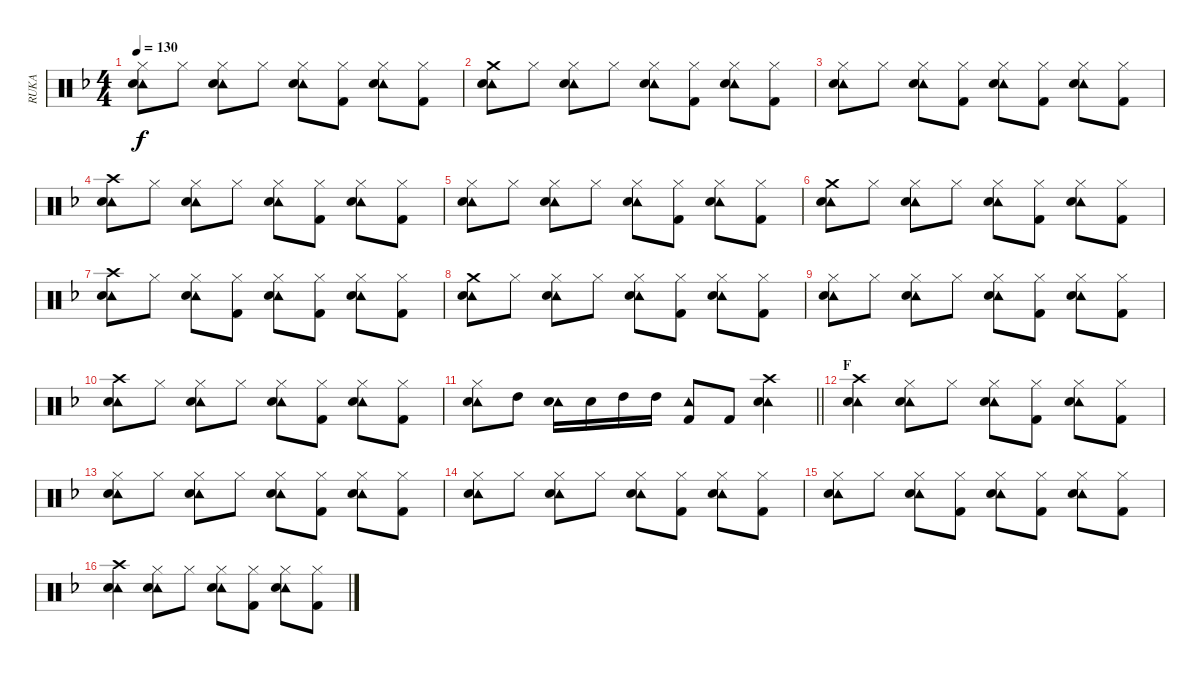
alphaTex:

\track ("RUKA" "RUKA") {instrument percussion}
\staff {score}
\articulation defaults
\ts (4 4)
\tempo 130
\clef neutral
\ks f
("Hi-Hat (closed)" "Tambourine (hit)" "Snare (hit) 2").8{dy f} "Hi-Hat (closed)".8 ("Hi-Hat (closed)" "Tambourine (hit)" "Snare (hit) 2").8 "Hi-Hat (closed)".8 ("Hi-Hat (closed)" "Tambourine (hit)" "Snare (hit) 2").8 ("Hi-Hat (closed)" "Kick (hit) 2").8 ("Hi-Hat (closed)" "Tambourine (hit)" "Snare (hit) 2").8 ("Hi-Hat (closed)" "Kick (hit) 2").8 |
("Crash medium (hit)" "Tambourine (hit)" "Snare (hit) 2").8 "Hi-Hat (closed)".8 ("Hi-Hat (closed)" "Tambourine (hit)" "Snare (hit) 2").8 "Hi-Hat (closed)".8 ("Hi-Hat (closed)" "Tambourine (hit)" "Snare (hit) 2").8 ("Hi-Hat (closed)" "Kick (hit) 2").8 ("Hi-Hat (closed)" "Tambourine (hit)" "Snare (hit) 2").8 ("Hi-Hat (closed)" "Kick (hit) 2").8 |
("Hi-Hat (closed)" "Tambourine (hit)" "Snare (hit) 2").8 "Hi-Hat (closed)".8 ("Hi-Hat (closed)" "Tambourine (hit)" "Snare (hit) 2").8 ("Hi-Hat (closed)" "Kick (hit) 2").8 ("Hi-Hat (closed)" "Tambourine (hit)" "Snare (hit) 2").8 ("Hi-Hat (closed)" "Kick (hit) 2").8 ("Hi-Hat (closed)" "Tambourine (hit)" "Snare (hit) 2").8 ("Hi-Hat (closed)" "Kick (hit) 2").8 |
("Crash high (hit)" "Tambourine (hit)" "Snare (hit) 2").8 "Hi-Hat (closed)".8 ("Hi-Hat (closed)" "Tambourine (hit)" "Snare (hit) 2").8 "Hi-Hat (closed)".8 ("Hi-Hat (closed)" "Tambourine (hit)" "Snare (hit) 2").8 ("Hi-Hat (closed)" "Kick (hit) 2").8 ("Hi-Hat (closed)" "Tambourine (hit)" "Snare (hit) 2").8 ("Hi-Hat (closed)" "Kick (hit) 2").8 |
("Hi-Hat (closed)" "Tambourine (hit)" "Snare (hit) 2").8 "Hi-Hat (closed)".8 ("Hi-Hat (closed)" "Tambourine (hit)" "Snare (hit) 2").8 "Hi-Hat (closed)".8 ("Hi-Hat (closed)" "Tambourine (hit)" "Snare (hit) 2").8 ("Hi-Hat (closed)" "Kick (hit) 2").8 ("Hi-Hat (closed)" "Tambourine (hit)" "Snare (hit) 2").8 ("Hi-Hat (closed)" "Kick (hit) 2").8 |
("Crash medium (hit)" "Tambourine (hit)" "Snare (hit) 2").8 "Hi-Hat (closed)".8 ("Hi-Hat (closed)" "Tambourine (hit)" "Snare (hit) 2").8 "Hi-Hat (closed)".8 ("Hi-Hat (closed)" "Tambourine (hit)" "Snare (hit) 2").8 ("Hi-Hat (closed)" "Kick (hit) 2").8 ("Hi-Hat (closed)" "Tambourine (hit)" "Snare (hit) 2").8 ("Hi-Hat (closed)" "Kick (hit) 2").8 |
("Crash high (hit)" "Tambourine (hit)" "Snare (hit) 2").8 "Hi-Hat (closed)".8 ("Hi-Hat (closed)" "Tambourine (hit)" "Snare (hit) 2").8 ("Hi-Hat (closed)" "Kick (hit) 2").8 ("Hi-Hat (closed)" "Tambourine (hit)" "Snare (hit) 2").8 ("Hi-Hat (closed)" "Kick (hit) 2").8 ("Hi-Hat (closed)" "Tambourine (hit)" "Snare (hit) 2").8 ("Hi-Hat (closed)" "Kick (hit) 2").8 |
("Crash medium (hit)" "Tambourine (hit)" "Snare (hit) 2").8 "Hi-Hat (closed)".8 ("Hi-Hat (closed)" "Tambourine (hit)" "Snare (hit) 2").8 "Hi-Hat (closed)".8 ("Hi-Hat (closed)" "Tambourine (hit)" "Snare (hit) 2").8 ("Hi-Hat (closed)" "Kick (hit) 2").8 ("Hi-Hat (closed)" "Tambourine (hit)" "Snare (hit) 2").8 ("Hi-Hat (closed)" "Kick (hit) 2").8 |
("Hi-Hat (closed)" "Tambourine (hit)" "Snare (hit) 2").8 "Hi-Hat (closed)".8 ("Hi-Hat (closed)" "Tambourine (hit)" "Snare (hit) 2").8 "Hi-Hat (closed)".8 ("Hi-Hat (closed)" "Tambourine (hit)" "Snare (hit) 2").8 ("Hi-Hat (closed)" "Kick (hit) 2").8 ("Hi-Hat (closed)" "Tambourine (hit)" "Snare (hit) 2").8 ("Hi-Hat (closed)" "Kick (hit) 2").8 |
("Crash high (hit)" "Tambourine (hit)" "Snare (hit) 2").8 "Hi-Hat (closed)".8 ("Hi-Hat (closed)" "Tambourine (hit)" "Snare (hit) 2").8 "Hi-Hat (closed)".8 ("Hi-Hat (closed)" "Tambourine (hit)" "Snare (hit) 2").8 ("Hi-Hat (closed)" "Kick (hit) 2").8 ("Hi-Hat (closed)" "Tambourine (hit)" "Snare (hit) 2").8 ("Hi-Hat (closed)" "Kick (hit) 2").8 |
\barLineRight lightlight
("Hi-Hat (closed)" "Tambourine (hit)" "Snare (hit) 2").8 "High Tom (hit)".8 ("Tambourine (hit)" "Snare (hit) 2").16 "Snare (hit) 2".16 "High Tom (hit)".16 "High Tom (hit)".16 ("Tambourine (hit)" "Kick (hit) 2").8 "Kick (hit) 2".8 ("Crash high (hit)" "Tambourine (hit)" "Snare (hit) 2").4 |
\section ("" "F")
("Crash high (hit)" "Tambourine (hit)" "Snare (hit) 2").4 ("Hi-Hat (closed)" "Tambourine (hit)" "Snare (hit) 2").8 "Hi-Hat (closed)".8 ("Hi-Hat (closed)" "Tambourine (hit)" "Snare (hit) 2").8 ("Hi-Hat (closed)" "Kick (hit) 2").8 ("Hi-Hat (closed)" "Tambourine (hit)" "Snare (hit) 2").8 ("Hi-Hat (closed)" "Kick (hit) 2").8 |
("Hi-Hat (closed)" "Tambourine (hit)" "Snare (hit) 2").8 "Hi-Hat (closed)".8 ("Hi-Hat (closed)" "Tambourine (hit)" "Snare (hit) 2").8 "Hi-Hat (closed)".8 ("Hi-Hat (closed)" "Tambourine (hit)" "Snare (hit) 2").8 ("Hi-Hat (closed)" "Kick (hit) 2").8 ("Hi-Hat (closed)" "Tambourine (hit)" "Snare (hit) 2").8 ("Hi-Hat (closed)" "Kick (hit) 2").8 |
("Hi-Hat (closed)" "Tambourine (hit)" "Snare (hit) 2").8 "Hi-Hat (closed)".8 ("Hi-Hat (closed)" "Tambourine (hit)" "Snare (hit) 2").8 "Hi-Hat (closed)".8 ("Hi-Hat (closed)" "Tambourine (hit)" "Snare (hit) 2").8 ("Hi-Hat (closed)" "Kick (hit) 2").8 ("Hi-Hat (closed)" "Tambourine (hit)" "Snare (hit) 2").8 ("Hi-Hat (closed)" "Kick (hit) 2").8 |
("Hi-Hat (closed)" "Tambourine (hit)" "Snare (hit) 2").8 "Hi-Hat (closed)".8 ("Hi-Hat (closed)" "Tambourine (hit)" "Snare (hit) 2").8 ("Hi-Hat (closed)" "Kick (hit) 2").8 ("Hi-Hat (closed)" "Tambourine (hit)" "Snare (hit) 2").8 ("Hi-Hat (closed)" "Kick (hit) 2").8 ("Hi-Hat (closed)" "Tambourine (hit)" "Snare (hit) 2").8 ("Hi-Hat (closed)" "Kick (hit) 2").8 |
("Crash high (hit)" "Tambourine (hit)" "Snare (hit) 2").4 ("Hi-Hat (closed)" "Tambourine (hit)" "Snare (hit) 2").8 "Hi-Hat (closed)".8 ("Hi-Hat (closed)" "Tambourine (hit)" "Snare (hit) 2").8 ("Hi-Hat (closed)" "Kick (hit) 2").8 ("Hi-Hat (closed)" "Tambourine (hit)" "Snare (hit) 2").8 ("Hi-Hat (closed)" "Kick (hit) 2").8
